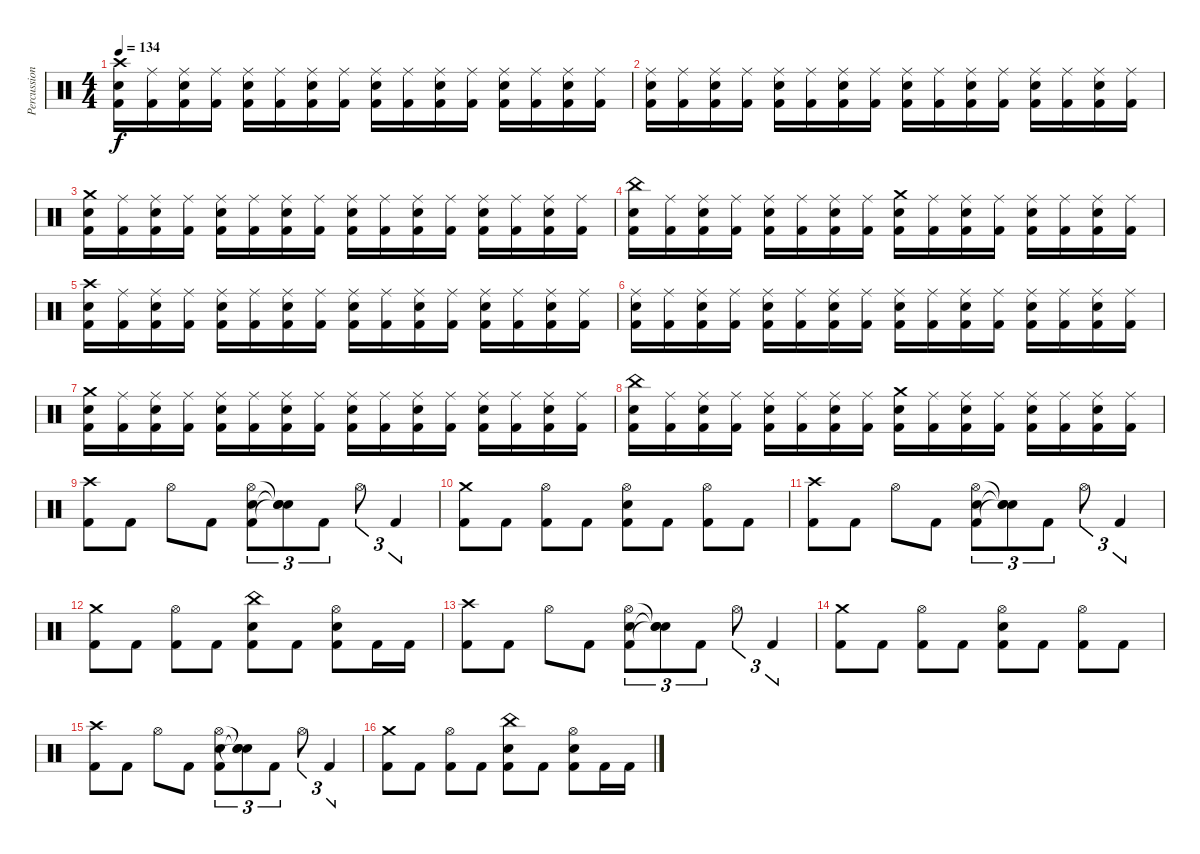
\track ("Percussion" "Percussion") {instrument percussion}
\staff {score}
\articulation defaults
\ts (4 4)
\tempo 134
\clef neutral
\ks c
("Crash high (hit)" "Snare (hit) 2" "Kick (hit) 2").16{dy f} ("Ride (middle)" "Kick (hit) 2").16 ("Ride (middle)" "Snare (hit) 2" "Kick (hit) 2").16 ("Ride (middle)" "Kick (hit) 2").16 ("Ride (middle)" "Snare (hit) 2" "Kick (hit) 2").16 ("Ride (middle)" "Kick (hit) 2").16 ("Ride (middle)" "Snare (hit) 2" "Kick (hit) 2").16 ("Ride (middle)" "Kick (hit) 2").16 ("Ride (middle)" "Snare (hit) 2" "Kick (hit) 2").16 ("Ride (middle)" "Kick (hit) 2").16 ("Ride (middle)" "Snare (hit) 2" "Kick (hit) 2").16 ("Ride (middle)" "Kick (hit) 2").16 ("Ride (middle)" "Snare (hit) 2" "Kick (hit) 2").16 ("Ride (middle)" "Kick (hit) 2").16 ("Ride (middle)" "Snare (hit) 2" "Kick (hit) 2").16 ("Ride (middle)" "Kick (hit) 2").16 |
("Ride (middle)" "Snare (hit) 2" "Kick (hit) 2").16 ("Ride (middle)" "Kick (hit) 2").16 ("Ride (middle)" "Snare (hit) 2" "Kick (hit) 2").16 ("Ride (middle)" "Kick (hit) 2").16 ("Ride (middle)" "Snare (hit) 2" "Kick (hit) 2").16 ("Ride (middle)" "Kick (hit) 2").16 ("Ride (middle)" "Snare (hit) 2" "Kick (hit) 2").16 ("Ride (middle)" "Kick (hit) 2").16 ("Ride (middle)" "Snare (hit) 2" "Kick (hit) 2").16 ("Ride (middle)" "Kick (hit) 2").16 ("Ride (middle)" "Snare (hit) 2" "Kick (hit) 2").16 ("Ride (middle)" "Kick (hit) 2").16 ("Ride (middle)" "Snare (hit) 2" "Kick (hit) 2").16 ("Ride (middle)" "Kick (hit) 2").16 ("Ride (middle)" "Snare (hit) 2" "Kick (hit) 2").16 ("Ride (middle)" "Kick (hit) 2").16 |
("Crash medium (hit)" "Snare (hit) 2" "Kick (hit) 2").16 ("Ride (middle)" "Kick (hit) 2").16 ("Ride (middle)" "Snare (hit) 2" "Kick (hit) 2").16 ("Ride (middle)" "Kick (hit) 2").16 ("Ride (middle)" "Snare (hit) 2" "Kick (hit) 2").16 ("Ride (middle)" "Kick (hit) 2").16 ("Ride (middle)" "Snare (hit) 2" "Kick (hit) 2").16 ("Ride (middle)" "Kick (hit) 2").16 ("Ride (middle)" "Snare (hit) 2" "Kick (hit) 2").16 ("Ride (middle)" "Kick (hit) 2").16 ("Ride (middle)" "Snare (hit) 2" "Kick (hit) 2").16 ("Ride (middle)" "Kick (hit) 2").16 ("Ride (middle)" "Snare (hit) 2" "Kick (hit) 2").16 ("Ride (middle)" "Kick (hit) 2").16 ("Ride (middle)" "Snare (hit) 2" "Kick (hit) 2").16 ("Ride (middle)" "Kick (hit) 2").16 |
("China (hit)" "Snare (hit) 2" "Kick (hit) 2").16 ("Ride (middle)" "Kick (hit) 2").16 ("Ride (middle)" "Snare (hit) 2" "Kick (hit) 2").16 ("Ride (middle)" "Kick (hit) 2").16 ("Ride (middle)" "Snare (hit) 2" "Kick (hit) 2").16 ("Ride (middle)" "Kick (hit) 2").16 ("Ride (middle)" "Snare (hit) 2" "Kick (hit) 2").16 ("Ride (middle)" "Kick (hit) 2").16 ("Crash medium (hit)" "Snare (hit) 2" "Kick (hit) 2").16 ("Ride (middle)" "Kick (hit) 2").16 ("Ride (middle)" "Snare (hit) 2" "Kick (hit) 2").16 ("Ride (middle)" "Kick (hit) 2").16 ("Ride (middle)" "Snare (hit) 2" "Kick (hit) 2").16 ("Ride (middle)" "Kick (hit) 2").16 ("Ride (middle)" "Snare (hit) 2" "Kick (hit) 2").16 ("Ride (middle)" "Kick (hit) 2").16 |
("Crash high (hit)" "Snare (hit) 2" "Kick (hit) 2").16 ("Ride (middle)" "Kick (hit) 2").16 ("Ride (middle)" "Snare (hit) 2" "Kick (hit) 2").16 ("Ride (middle)" "Kick (hit) 2").16 ("Ride (middle)" "Snare (hit) 2" "Kick (hit) 2").16 ("Ride (middle)" "Kick (hit) 2").16 ("Ride (middle)" "Snare (hit) 2" "Kick (hit) 2").16 ("Ride (middle)" "Kick (hit) 2").16 ("Ride (middle)" "Snare (hit) 2" "Kick (hit) 2").16 ("Ride (middle)" "Kick (hit) 2").16 ("Ride (middle)" "Snare (hit) 2" "Kick (hit) 2").16 ("Ride (middle)" "Kick (hit) 2").16 ("Ride (middle)" "Snare (hit) 2" "Kick (hit) 2").16 ("Ride (middle)" "Kick (hit) 2").16 ("Ride (middle)" "Snare (hit) 2" "Kick (hit) 2").16 ("Ride (middle)" "Kick (hit) 2").16 |
("Ride (middle)" "Snare (hit) 2" "Kick (hit) 2").16 ("Ride (middle)" "Kick (hit) 2").16 ("Ride (middle)" "Snare (hit) 2" "Kick (hit) 2").16 ("Ride (middle)" "Kick (hit) 2").16 ("Ride (middle)" "Snare (hit) 2" "Kick (hit) 2").16 ("Ride (middle)" "Kick (hit) 2").16 ("Ride (middle)" "Snare (hit) 2" "Kick (hit) 2").16 ("Ride (middle)" "Kick (hit) 2").16 ("Ride (middle)" "Snare (hit) 2" "Kick (hit) 2").16 ("Ride (middle)" "Kick (hit) 2").16 ("Ride (middle)" "Snare (hit) 2" "Kick (hit) 2").16 ("Ride (middle)" "Kick (hit) 2").16 ("Ride (middle)" "Snare (hit) 2" "Kick (hit) 2").16 ("Ride (middle)" "Kick (hit) 2").16 ("Ride (middle)" "Snare (hit) 2" "Kick (hit) 2").16 ("Ride (middle)" "Kick (hit) 2").16 |
("Crash medium (hit)" "Snare (hit) 2" "Kick (hit) 2").16 ("Ride (middle)" "Kick (hit) 2").16 ("Ride (middle)" "Snare (hit) 2" "Kick (hit) 2").16 ("Ride (middle)" "Kick (hit) 2").16 ("Ride (middle)" "Snare (hit) 2" "Kick (hit) 2").16 ("Ride (middle)" "Kick (hit) 2").16 ("Ride (middle)" "Snare (hit) 2" "Kick (hit) 2").16 ("Ride (middle)" "Kick (hit) 2").16 ("Ride (middle)" "Snare (hit) 2" "Kick (hit) 2").16 ("Ride (middle)" "Kick (hit) 2").16 ("Ride (middle)" "Snare (hit) 2" "Kick (hit) 2").16 ("Ride (middle)" "Kick (hit) 2").16 ("Ride (middle)" "Snare (hit) 2" "Kick (hit) 2").16 ("Ride (middle)" "Kick (hit) 2").16 ("Ride (middle)" "Snare (hit) 2" "Kick (hit) 2").16 ("Ride (middle)" "Kick (hit) 2").16 |
("China (hit)" "Snare (hit) 2" "Kick (hit) 2").16 ("Ride (middle)" "Kick (hit) 2").16 ("Ride (middle)" "Snare (hit) 2" "Kick (hit) 2").16 ("Ride (middle)" "Kick (hit) 2").16 ("Ride (middle)" "Snare (hit) 2" "Kick (hit) 2").16 ("Ride (middle)" "Kick (hit) 2").16 ("Ride (middle)" "Snare (hit) 2" "Kick (hit) 2").16 ("Ride (middle)" "Kick (hit) 2").16 ("Crash medium (hit)" "Snare (hit) 2" "Kick (hit) 2").16 ("Ride (middle)" "Kick (hit) 2").16 ("Ride (middle)" "Snare (hit) 2" "Kick (hit) 2").16 ("Ride (middle)" "Kick (hit) 2").16 ("Ride (middle)" "Snare (hit) 2" "Kick (hit) 2").16 ("Ride (middle)" "Kick (hit) 2").16 ("Ride (middle)" "Snare (hit) 2" "Kick (hit) 2").16 ("Ride (middle)" "Kick (hit) 2").16 |
("Crash high (hit)" "Kick (hit) 2").8 "Kick (hit) 2".8 "Hi-Hat (open)".8 "Kick (hit) 2".8 ("Hi-Hat (open)" "Snare (hit) 2" "Kick (hit) 2").8{tu (3 2)} ("Snare (hit)"{t} "Snare (hit)"{t} "Snare (hit)"{t}).8{tu (3 2)} "Kick (hit) 2".8{tu (3 2)} "Hi-Hat (open)".8{tu (3 2)} "Kick (hit) 2".4{tu (3 2)} |
("Crash medium (hit)" "Kick (hit) 2").8 "Kick (hit) 2".8 ("Hi-Hat (open)" "Kick (hit) 2").8 "Kick (hit) 2".8 ("Hi-Hat (open)" "Snare (hit) 2" "Kick (hit) 2").8 "Kick (hit) 2".8 ("Hi-Hat (open)" "Kick (hit) 2").8 "Kick (hit) 2".8 |
("Crash high (hit)" "Kick (hit) 2").8 "Kick (hit) 2".8 "Hi-Hat (open)".8 "Kick (hit) 2".8 ("Hi-Hat (open)" "Snare (hit) 2" "Kick (hit) 2").8{tu (3 2)} ("Snare (hit)"{t} "Snare (hit)"{t} "Snare (hit)"{t}).8{tu (3 2)} "Kick (hit) 2".8{tu (3 2)} "Hi-Hat (open)".8{tu (3 2)} "Kick (hit) 2".4{tu (3 2)} |
("Crash medium (hit)" "Kick (hit) 2").8 "Kick (hit) 2".8 ("Hi-Hat (open)" "Kick (hit) 2").8 "Kick (hit) 2".8 ("China (hit)" "Snare (hit) 2" "Kick (hit) 2").8 "Kick (hit) 2".8 ("Hi-Hat (open)" "Snare (hit) 2" "Kick (hit) 2").8 "Kick (hit) 2".16 "Kick (hit) 2".16 |
("Crash high (hit)" "Kick (hit) 2").8 "Kick (hit) 2".8 "Hi-Hat (open)".8 "Kick (hit) 2".8 ("Hi-Hat (open)" "Snare (hit) 2" "Kick (hit) 2").8{tu (3 2)} ("Snare (hit)"{t} "Snare (hit)"{t} "Snare (hit)"{t}).8{tu (3 2)} "Kick (hit) 2".8{tu (3 2)} "Hi-Hat (open)".8{tu (3 2)} "Kick (hit) 2".4{tu (3 2)} |
("Crash medium (hit)" "Kick (hit) 2").8 "Kick (hit) 2".8 ("Hi-Hat (open)" "Kick (hit) 2").8 "Kick (hit) 2".8 ("Hi-Hat (open)" "Snare (hit) 2" "Kick (hit) 2").8 "Kick (hit) 2".8 ("Hi-Hat (open)" "Kick (hit) 2").8 "Kick (hit) 2".8 |
("Crash high (hit)" "Kick (hit) 2").8 "Kick (hit) 2".8 "Hi-Hat (open)".8 "Kick (hit) 2".8 ("Hi-Hat (open)" "Snare (hit) 2" "Kick (hit) 2").8{tu (3 2)} ("Snare (hit)"{t} "Snare (hit)"{t} "Snare (hit)"{t}).8{tu (3 2)} "Kick (hit) 2".8{tu (3 2)} "Hi-Hat (open)".8{tu (3 2)} "Kick (hit) 2".4{tu (3 2)} |
("Crash medium (hit)" "Kick (hit) 2").8 "Kick (hit) 2".8 ("Hi-Hat (open)" "Kick (hit) 2").8 "Kick (hit) 2".8 ("China (hit)" "Snare (hit) 2" "Kick (hit) 2").8 "Kick (hit) 2".8 ("Hi-Hat (open)" "Snare (hit) 2" "Kick (hit) 2").8 "Kick (hit) 2".16 "Kick (hit) 2".16
